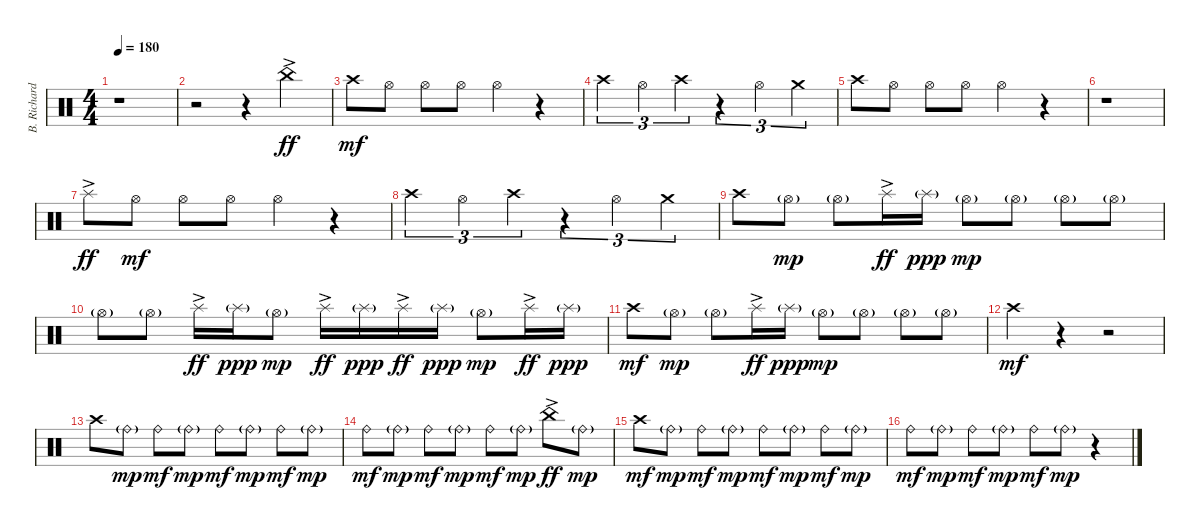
\track ("B. Richardson Drums" "B. Richard") {instrument percussion}
\staff {score}
\articulation defaults
\ts (4 4)
\tempo 180
\clef neutral
\ks c
r.1{dy mf} |
r.2 r.4 "China (hit)"{ac}.4{dy ff} |
"Crash high (hit)".8{dy mf} "Hi-Hat (open)".8 "Hi-Hat (open)".8 "Hi-Hat (open)".8 "Hi-Hat (open)".4 r.4 |
"Crash high (hit)".4{tu (3 2)} "Hi-Hat (open)".4{tu (3 2)} "Crash high (hit)".4{tu (3 2)} r.4{tu (3 2)} "Hi-Hat (open)".4{tu (3 2)} "Crash medium (hit)".4{tu (3 2)} |
"Crash high (hit)".8 "Hi-Hat (open)".8 "Hi-Hat (open)".8 "Hi-Hat (open)".8 "Hi-Hat (open)".4 r.4 |
r.1 |
"Splash (hit)"{ac}.8{dy ff} "Hi-Hat (open)".8{dy mf} "Hi-Hat (open)".8 "Hi-Hat (open)".8 "Hi-Hat (open)".4 r.4 |
"Crash high (hit)".4{tu (3 2)} "Hi-Hat (open)".4{tu (3 2)} "Crash high (hit)".4{tu (3 2)} r.4{tu (3 2)} "Hi-Hat (open)".4{tu (3 2)} "Crash medium (hit)".4{tu (3 2)} |
"Crash high (hit)".8 "Hi-Hat (open)"{g}.8{dy mp} "Hi-Hat (open)"{g}.8 "Splash (hit)"{ac}.16{dy ff} "Splash (hit)"{g}.16{dy ppp} "Hi-Hat (open)"{g}.8{dy mp} "Hi-Hat (open)"{g}.8 "Hi-Hat (open)"{g}.8 "Hi-Hat (open)"{g}.8 |
"Hi-Hat (open)"{g}.8 "Hi-Hat (open)"{g}.8 "Splash (hit)"{ac}.16{dy ff} "Splash (hit)"{g}.16{dy ppp} "Hi-Hat (open)"{g}.8{dy mp} "Splash (hit)"{ac}.16{dy ff} "Splash (hit)"{g}.16{dy ppp} "Splash (hit)"{ac}.16{dy ff} "Splash (hit)"{g}.16{dy ppp} "Hi-Hat (open)"{g}.8{dy mp} "Splash (hit)"{ac}.16{dy ff} "Splash (hit)"{g}.16{dy ppp} |
"Crash high (hit)".8{dy mf} "Hi-Hat (open)"{g}.8{dy mp} "Hi-Hat (open)"{g}.8 "Splash (hit)"{ac}.16{dy ff} "Splash (hit)"{g}.16{dy ppp} "Hi-Hat (open)"{g}.8{dy mp} "Hi-Hat (open)"{g}.8 "Hi-Hat (open)"{g}.8 "Hi-Hat (open)"{g}.8 |
"Crash high (hit)".4{dy mf} r.4 r.2 |
"Crash high (hit)".8 "Ride (bell)"{g}.8{dy mp} "Ride (bell)".8{dy mf} "Ride (bell)"{g}.8{dy mp} "Ride (bell)".8{dy mf} "Ride (bell)"{g}.8{dy mp} "Ride (bell)".8{dy mf} "Ride (bell)"{g}.8{dy mp} |
"Ride (bell)".8{dy mf} "Ride (bell)"{g}.8{dy mp} "Ride (bell)".8{dy mf} "Ride (bell)"{g}.8{dy mp} "Ride (bell)".8{dy mf} "Ride (bell)"{g}.8{dy mp} "China (hit)"{ac}.8{dy ff} "Ride (bell)"{g}.8{dy mp} |
"Crash high (hit)".8{dy mf} "Ride (bell)"{g}.8{dy mp} "Ride (bell)".8{dy mf} "Ride (bell)"{g}.8{dy mp} "Ride (bell)".8{dy mf} "Ride (bell)"{g}.8{dy mp} "Ride (bell)".8{dy mf} "Ride (bell)"{g}.8{dy mp} |
"Ride (bell)".8{dy mf} "Ride (bell)"{g}.8{dy mp} "Ride (bell)".8{dy mf} "Ride (bell)"{g}.8{dy mp} "Ride (bell)".8{dy mf} "Ride (bell)"{g}.8{dy mp} r.4
